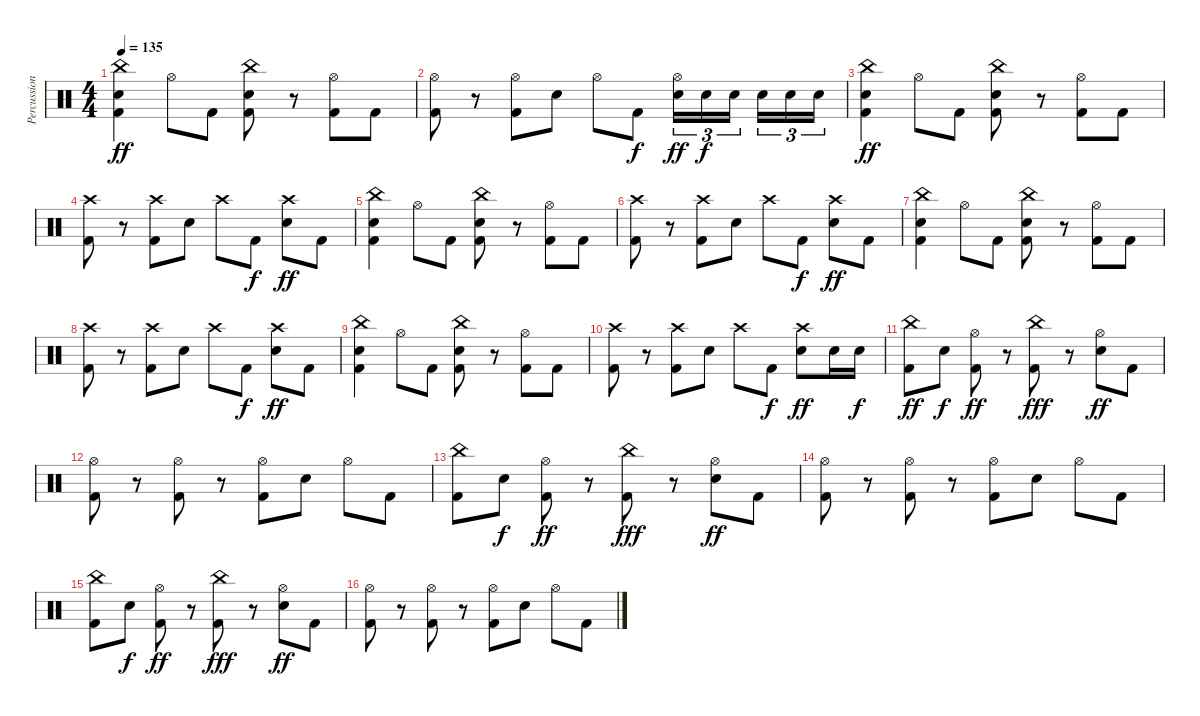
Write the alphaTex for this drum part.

\track ("Percussion" "Percussion") {instrument percussion}
\staff {score}
\articulation defaults
\ts (4 4)
\tempo 135
\clef neutral
\ks c
("China (hit)" "Snare (hit) 2" "Kick (hit) 2").4{dy ff} "Hi-Hat (open)".8 "Kick (hit) 2".8 ("China (hit)" "Snare (hit) 2" "Kick (hit) 2").8 r.8 ("Hi-Hat (open)" "Kick (hit) 2").8 "Kick (hit) 2".8 |
("Hi-Hat (open)" "Kick (hit) 2").8 r.8 ("Hi-Hat (open)" "Kick (hit) 2").8 "Electric Snare (hit)".8 "Hi-Hat (open)".8 "Kick (hit) 2".8{dy f} ("Hi-Hat (open)" "Electric Snare (hit)").16{tu (3 2) dy ff} "Electric Snare (hit)".16{tu (3 2) dy f} "Electric Snare (hit)".16{tu (3 2)} "Electric Snare (hit)".16{tu (3 2)} "Electric Snare (hit)".16{tu (3 2)} "Electric Snare (hit)".16{tu (3 2)} |
("China (hit)" "Snare (hit) 2" "Kick (hit) 2").4{dy ff} "Hi-Hat (open)".8 "Kick (hit) 2".8 ("China (hit)" "Snare (hit) 2" "Kick (hit) 2").8 r.8 ("Hi-Hat (open)" "Kick (hit) 2").8 "Kick (hit) 2".8 |
("Crash high (hit)" "Kick (hit) 2").8 r.8 ("Crash high (hit)" "Kick (hit) 2").8 "Electric Snare (hit)".8 "Crash high (hit)".8 "Kick (hit) 2".8{dy f} ("Crash high (hit)" "Electric Snare (hit)").8{dy ff} "Kick (hit) 2".8 |
("China (hit)" "Snare (hit) 2" "Kick (hit) 2").4 "Hi-Hat (open)".8 "Kick (hit) 2".8 ("China (hit)" "Snare (hit) 2" "Kick (hit) 2").8 r.8 ("Hi-Hat (open)" "Kick (hit) 2").8 "Kick (hit) 2".8 |
("Crash high (hit)" "Kick (hit) 2").8 r.8 ("Crash high (hit)" "Kick (hit) 2").8 "Electric Snare (hit)".8 "Crash high (hit)".8 "Kick (hit) 2".8{dy f} ("Crash high (hit)" "Electric Snare (hit)").8{dy ff} "Kick (hit) 2".8 |
("China (hit)" "Snare (hit) 2" "Kick (hit) 2").4 "Hi-Hat (open)".8 "Kick (hit) 2".8 ("China (hit)" "Snare (hit) 2" "Kick (hit) 2").8 r.8 ("Hi-Hat (open)" "Kick (hit) 2").8 "Kick (hit) 2".8 |
("Crash high (hit)" "Kick (hit) 2").8 r.8 ("Crash high (hit)" "Kick (hit) 2").8 "Electric Snare (hit)".8 "Crash high (hit)".8 "Kick (hit) 2".8{dy f} ("Crash high (hit)" "Electric Snare (hit)").8{dy ff} "Kick (hit) 2".8 |
("China (hit)" "Snare (hit) 2" "Kick (hit) 2").4 "Hi-Hat (open)".8 "Kick (hit) 2".8 ("China (hit)" "Snare (hit) 2" "Kick (hit) 2").8 r.8 ("Hi-Hat (open)" "Kick (hit) 2").8 "Kick (hit) 2".8 |
("Crash high (hit)" "Kick (hit) 2").8 r.8 ("Crash high (hit)" "Kick (hit) 2").8 "Electric Snare (hit)".8 "Crash high (hit)".8 "Kick (hit) 2".8{dy f} ("Crash high (hit)" "Electric Snare (hit)").8{dy ff} "Electric Snare (hit)".16 "Electric Snare (hit)".16{dy f} |
("China (hit)" "Kick (hit) 2").8{dy ff} "Electric Snare (hit)".8{dy f} ("Hi-Hat (open)" "Kick (hit) 2").8{dy ff} r.8 ("China (hit)" "Kick (hit) 2").8{dy fff} r.8 ("Hi-Hat (open)" "Electric Snare (hit)").8{dy ff} "Kick (hit) 2".8 |
("Hi-Hat (open)" "Kick (hit) 2").8 r.8 ("Hi-Hat (open)" "Kick (hit) 2").8 r.8 ("Hi-Hat (open)" "Kick (hit) 2").8 "Electric Snare (hit)".8 "Hi-Hat (open)".8 "Kick (hit) 2".8 |
("China (hit)" "Kick (hit) 2").8 "Electric Snare (hit)".8{dy f} ("Hi-Hat (open)" "Kick (hit) 2").8{dy ff} r.8 ("China (hit)" "Kick (hit) 2").8{dy fff} r.8 ("Hi-Hat (open)" "Electric Snare (hit)").8{dy ff} "Kick (hit) 2".8 |
("Hi-Hat (open)" "Kick (hit) 2").8 r.8 ("Hi-Hat (open)" "Kick (hit) 2").8 r.8 ("Hi-Hat (open)" "Kick (hit) 2").8 "Electric Snare (hit)".8 "Hi-Hat (open)".8 "Kick (hit) 2".8 |
("China (hit)" "Kick (hit) 2").8 "Electric Snare (hit)".8{dy f} ("Hi-Hat (open)" "Kick (hit) 2").8{dy ff} r.8 ("China (hit)" "Kick (hit) 2").8{dy fff} r.8 ("Hi-Hat (open)" "Electric Snare (hit)").8{dy ff} "Kick (hit) 2".8 |
("Hi-Hat (open)" "Kick (hit) 2").8 r.8 ("Hi-Hat (open)" "Kick (hit) 2").8 r.8 ("Hi-Hat (open)" "Kick (hit) 2").8 "Electric Snare (hit)".8 "Hi-Hat (open)".8 "Kick (hit) 2".8
